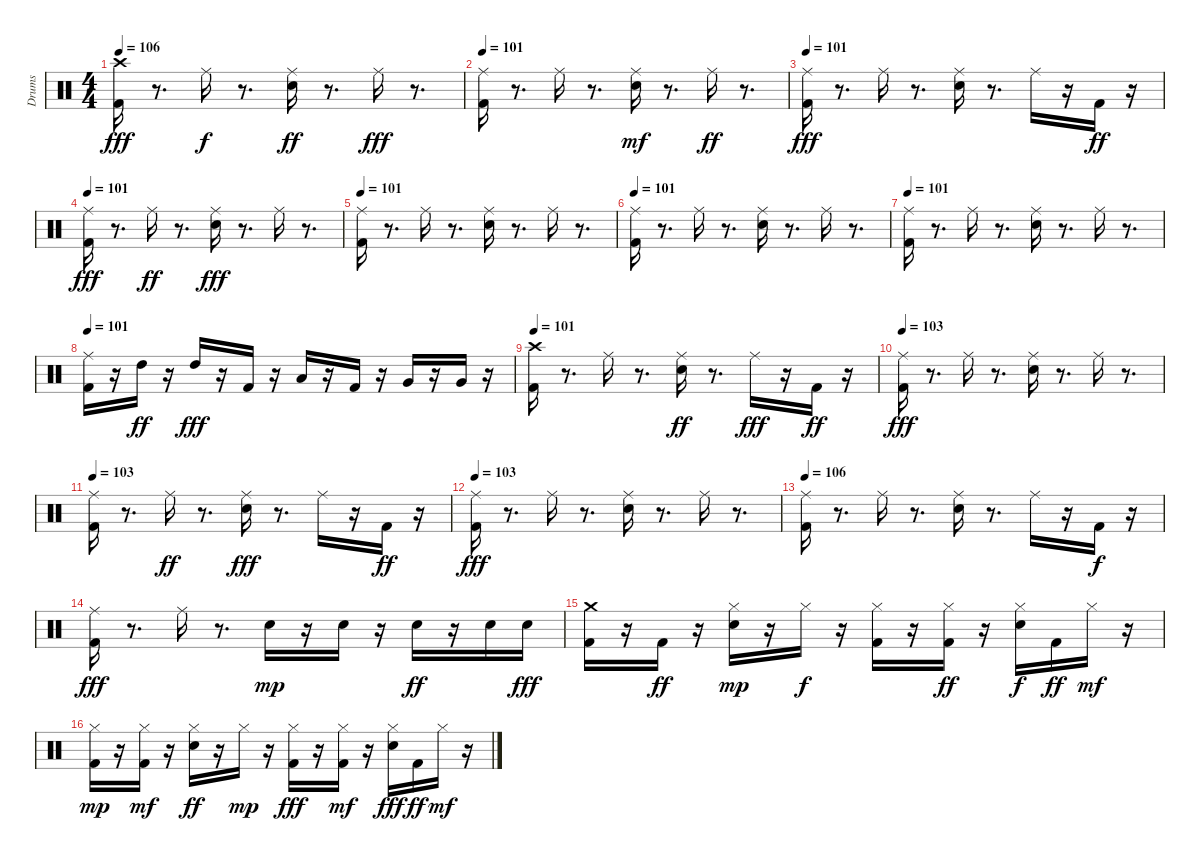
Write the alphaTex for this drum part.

\track ("Drums" "Drums") {instrument percussion}
\staff {score}
\articulation defaults
\ts (4 4)
\tempo 106
\clef neutral
\ks c
("Kick (hit) 2" "Crash high (hit)").16{dy fff} r.8{d} "Ride (middle)".16{dy f} r.8{d} ("Snare (hit) 2" "Ride (middle)").16{dy ff} r.8{d} "Ride (middle)".16{dy fff} r.8{d} |
\tempo 101
("Ride (middle)" "Kick (hit) 2").16 r.8{d} "Ride (middle)".16 r.8{d} ("Snare (hit) 2" "Ride (middle)").16{dy mf} r.8{d} "Ride (middle)".16{dy ff} r.8{d} |
\tempo 101
("Ride (middle)" "Kick (hit) 2").16{dy fff} r.8{d} "Ride (middle)".16 r.8{d} ("Snare (hit) 2" "Ride (middle)").16 r.8{d} "Ride (middle)".16 r.16 "Kick (hit) 2".16{dy ff} r.16 |
\tempo 101
("Ride (middle)" "Kick (hit) 2").16{dy fff} r.8{d} "Ride (middle)".16{dy ff} r.8{d} ("Ride (middle)" "Snare (hit) 2").16{dy fff} r.8{d} "Ride (middle)".16 r.8{d} |
\tempo 101
("Ride (middle)" "Kick (hit) 2").16 r.8{d} "Ride (middle)".16 r.8{d} ("Snare (hit) 2" "Ride (middle)").16 r.8{d} "Ride (middle)".16 r.8{d} |
\tempo 101
("Ride (middle)" "Kick (hit) 2").16 r.8{d} "Ride (middle)".16 r.8{d} ("Snare (hit) 2" "Ride (middle)").16 r.8{d} "Ride (middle)".16 r.8{d} |
\tempo 101
("Ride (middle)" "Kick (hit) 2").16 r.8{d} "Ride (middle)".16 r.8{d} ("Ride (middle)" "Snare (hit) 2").16 r.8{d} "Ride (middle)".16 r.8{d} |
\tempo 101
("Ride (middle)" "Kick (hit) 2").16 r.16 "High Tom (hit)".16{dy ff} r.16 "High Tom (hit)".16{dy fff} r.16 "Kick (hit) 2".16 r.16 "Low Tom (hit)".16 r.16 "Kick (hit) 2".16 r.16 "Very Low Tom (hit)".16 r.16 "Very Low Tom (hit)".16 r.16 |
\tempo 101
("Crash high (hit)" "Kick (hit) 2").16 r.8{d} "Ride (middle)".16 r.8{d} ("Ride (middle)" "Snare (hit) 2").16{dy ff} r.8{d} "Ride (middle)".16{dy fff} r.16 "Kick (hit) 2".16{dy ff} r.16 |
\tempo 103
("Ride (middle)" "Kick (hit) 2").16{dy fff} r.8{d} "Ride (middle)".16 r.8{d} ("Ride (middle)" "Snare (hit) 2").16 r.8{d} "Ride (middle)".16 r.8{d} |
\tempo 103
("Ride (middle)" "Kick (hit) 2").16 r.8{d} "Ride (middle)".16{dy ff} r.8{d} ("Ride (middle)" "Snare (hit) 2").16{dy fff} r.8{d} "Ride (middle)".16 r.16 "Kick (hit) 2".16{dy ff} r.16 |
\tempo 103
("Ride (middle)" "Kick (hit) 2").16{dy fff} r.8{d} "Ride (middle)".16 r.8{d} ("Snare (hit) 2" "Ride (middle)").16 r.8{d} "Ride (middle)".16 r.8{d} |
\tempo 106
("Ride (middle)" "Kick (hit) 2").16 r.8{d} "Ride (middle)".16 r.8{d} ("Snare (hit) 2" "Ride (middle)").16 r.8{d} "Ride (middle)".16 r.16 "Kick (hit) 2".16{dy f} r.16 |
("Ride (middle)" "Kick (hit) 2").16{dy fff} r.8{d} "Ride (middle)".16 r.8{d} "Snare (hit) 2".16{dy mp} r.16 "Snare (hit) 2".16 r.16 "Snare (hit) 2".16{dy ff} r.16 "Snare (hit) 2".16 "Snare (hit) 2".16{dy fff} |
("Kick (hit) 2" "Crash medium (hit)").16 r.16 "Kick (hit) 2".16{dy ff} r.16 ("Snare (hit) 2" "Hi-Hat (closed)").16{dy mp} r.16 "Hi-Hat (closed)".16{dy f} r.16 ("Hi-Hat (closed)" "Kick (hit) 2").16 r.16 ("Hi-Hat (closed)" "Kick (hit) 2").16{dy ff} r.16 ("Hi-Hat (closed)" "Snare (hit) 2").16{dy f} "Kick (hit) 2".16{dy ff} "Hi-Hat (closed)".16{dy mf} r.16 |
("Kick (hit) 2" "Hi-Hat (closed)").16{dy mp} r.16 ("Kick (hit) 2" "Hi-Hat (closed)").16{dy mf} r.16 ("Snare (hit) 2" "Hi-Hat (closed)").16{dy ff} r.16 "Hi-Hat (closed)".16{dy mp} r.16 ("Hi-Hat (closed)" "Kick (hit) 2").16{dy fff} r.16 ("Kick (hit) 2" "Hi-Hat (closed)").16{dy mf} r.16 ("Hi-Hat (closed)" "Snare (hit) 2").16{dy fff} "Kick (hit) 2".16{dy ff} "Hi-Hat (closed)".16{dy mf} r.16
